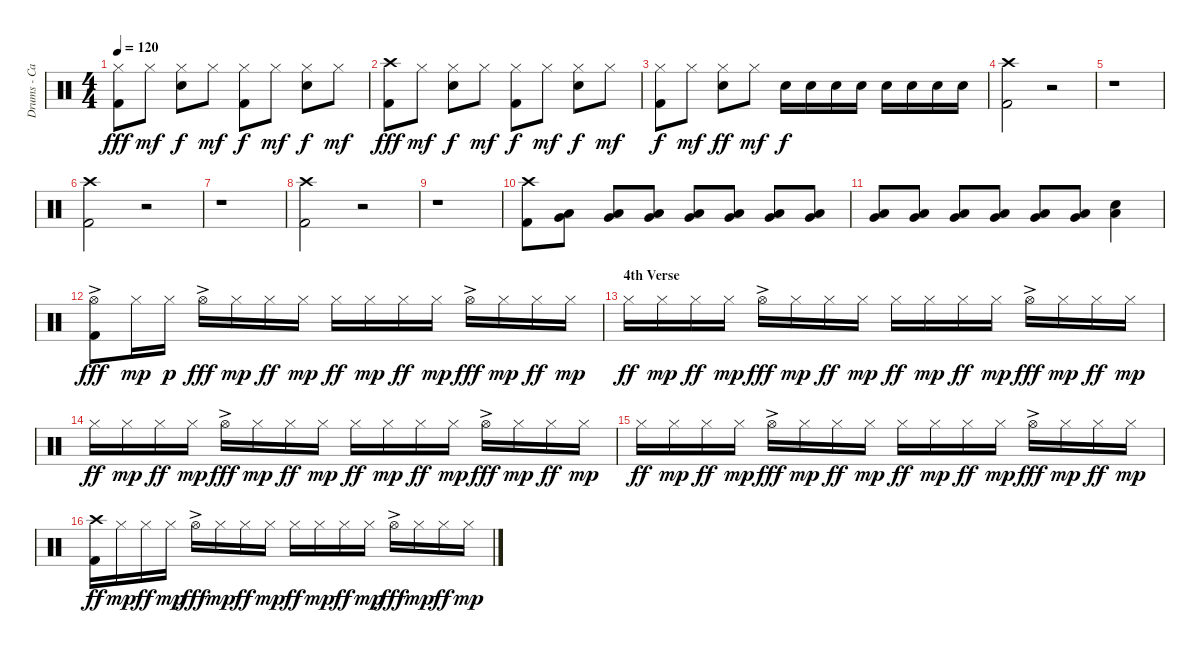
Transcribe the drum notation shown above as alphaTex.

\track ("Drums - Carl Palmer" "Drums - Ca") {instrument percussion}
\staff {score}
\articulation defaults
\ts (4 4)
\tempo 120
\clef neutral
\ks c
("Hi-Hat (closed)" "Kick (hit) 2").8{dy fff} "Hi-Hat (closed)".8{dy mf} ("Hi-Hat (closed)" "Snare (hit) 2").8{dy f} "Hi-Hat (closed)".8{dy mf} ("Hi-Hat (closed)" "Kick (hit) 2").8{dy f} "Hi-Hat (closed)".8{dy mf} ("Hi-Hat (closed)" "Snare (hit) 2").8{dy f} "Hi-Hat (closed)".8{dy mf} |
("Crash high (hit)" "Kick (hit) 2").8{dy fff} "Hi-Hat (closed)".8{dy mf} ("Hi-Hat (closed)" "Snare (hit) 2").8{dy f} "Hi-Hat (closed)".8{dy mf} ("Hi-Hat (closed)" "Kick (hit) 2").8{dy f} "Hi-Hat (closed)".8{dy mf} ("Hi-Hat (closed)" "Snare (hit) 2").8{dy f} "Hi-Hat (closed)".8{dy mf} |
("Hi-Hat (closed)" "Kick (hit) 2").8{dy f} "Hi-Hat (closed)".8{dy mf} ("Hi-Hat (closed)" "Snare (hit) 2").8{dy ff} "Hi-Hat (closed)".8{dy mf} "Snare (hit) 2".16{dy f} "Snare (hit) 2".16 "Snare (hit) 2".16 "Snare (hit) 2".16 "Snare (hit) 2".16 "Snare (hit) 2".16 "Snare (hit) 2".16 "Snare (hit) 2".16 |
("Crash high (hit)" "Kick (hit) 2").2 r.2 |
r.1 |
("Crash high (hit)" "Kick (hit) 2").2 r.2 |
r.1 |
("Crash high (hit)" "Kick (hit) 2").2 r.2 |
r.1 |
("Crash high (hit)" "Kick (hit) 2").8 ("Low Floor Tom (hit)" "Very Low Tom (hit)").8 ("Low Floor Tom (hit)" "Very Low Tom (hit)").8 ("Low Floor Tom (hit)" "Very Low Tom (hit)").8 ("Low Floor Tom (hit)" "Very Low Tom (hit)").8 ("Low Floor Tom (hit)" "Very Low Tom (hit)").8 ("Low Floor Tom (hit)" "Very Low Tom (hit)").8 ("Low Floor Tom (hit)" "Very Low Tom (hit)").8 |
("Low Floor Tom (hit)" "Very Low Tom (hit)").8 ("Low Floor Tom (hit)" "Very Low Tom (hit)").8 ("Low Floor Tom (hit)" "Very Low Tom (hit)").8 ("Low Floor Tom (hit)" "Very Low Tom (hit)").8 ("Low Floor Tom (hit)" "Very Low Tom (hit)").8 ("Low Floor Tom (hit)" "Very Low Tom (hit)").8 ("Low Floor Tom (hit)" "Snare (hit) 2").4 |
("Hi-Hat (open)"{ac} "Kick (hit) 2").8{dy fff} "Hi-Hat (closed)".16{dy mp} "Hi-Hat (closed)".16{dy p} "Hi-Hat (open)"{ac}.16{dy fff} "Hi-Hat (closed)".16{dy mp} "Hi-Hat (closed)".16{dy ff} "Hi-Hat (closed)".16{dy mp} "Hi-Hat (closed)".16{dy ff} "Hi-Hat (closed)".16{dy mp} "Hi-Hat (closed)".16{dy ff} "Hi-Hat (closed)".16{dy mp} "Hi-Hat (open)"{ac}.16{dy fff} "Hi-Hat (closed)".16{dy mp} "Hi-Hat (closed)".16{dy ff} "Hi-Hat (closed)".16{dy mp} |
\section ("" "4th Verse")
"Hi-Hat (closed)".16{dy ff} "Hi-Hat (closed)".16{dy mp} "Hi-Hat (closed)".16{dy ff} "Hi-Hat (closed)".16{dy mp} "Hi-Hat (open)"{ac}.16{dy fff} "Hi-Hat (closed)".16{dy mp} "Hi-Hat (closed)".16{dy ff} "Hi-Hat (closed)".16{dy mp} "Hi-Hat (closed)".16{dy ff} "Hi-Hat (closed)".16{dy mp} "Hi-Hat (closed)".16{dy ff} "Hi-Hat (closed)".16{dy mp} "Hi-Hat (open)"{ac}.16{dy fff} "Hi-Hat (closed)".16{dy mp} "Hi-Hat (closed)".16{dy ff} "Hi-Hat (closed)".16{dy mp} |
"Hi-Hat (closed)".16{dy ff} "Hi-Hat (closed)".16{dy mp} "Hi-Hat (closed)".16{dy ff} "Hi-Hat (closed)".16{dy mp} "Hi-Hat (open)"{ac}.16{dy fff} "Hi-Hat (closed)".16{dy mp} "Hi-Hat (closed)".16{dy ff} "Hi-Hat (closed)".16{dy mp} "Hi-Hat (closed)".16{dy ff} "Hi-Hat (closed)".16{dy mp} "Hi-Hat (closed)".16{dy ff} "Hi-Hat (closed)".16{dy mp} "Hi-Hat (open)"{ac}.16{dy fff} "Hi-Hat (closed)".16{dy mp} "Hi-Hat (closed)".16{dy ff} "Hi-Hat (closed)".16{dy mp} |
"Hi-Hat (closed)".16{dy ff} "Hi-Hat (closed)".16{dy mp} "Hi-Hat (closed)".16{dy ff} "Hi-Hat (closed)".16{dy mp} "Hi-Hat (open)"{ac}.16{dy fff} "Hi-Hat (closed)".16{dy mp} "Hi-Hat (closed)".16{dy ff} "Hi-Hat (closed)".16{dy mp} "Hi-Hat (closed)".16{dy ff} "Hi-Hat (closed)".16{dy mp} "Hi-Hat (closed)".16{dy ff} "Hi-Hat (closed)".16{dy mp} "Hi-Hat (open)"{ac}.16{dy fff} "Hi-Hat (closed)".16{dy mp} "Hi-Hat (closed)".16{dy ff} "Hi-Hat (closed)".16{dy mp} |
("Crash high (hit)" "Kick (hit) 2").16{dy ff} "Hi-Hat (closed)".16{dy mp} "Hi-Hat (closed)".16{dy ff} "Hi-Hat (closed)".16{dy mp} "Hi-Hat (open)"{ac}.16{dy fff} "Hi-Hat (closed)".16{dy mp} "Hi-Hat (closed)".16{dy ff} "Hi-Hat (closed)".16{dy mp} "Hi-Hat (closed)".16{dy ff} "Hi-Hat (closed)".16{dy mp} "Hi-Hat (closed)".16{dy ff} "Hi-Hat (closed)".16{dy mp} "Hi-Hat (open)"{ac}.16{dy fff} "Hi-Hat (closed)".16{dy mp} "Hi-Hat (closed)".16{dy ff} "Hi-Hat (closed)".16{dy mp}
